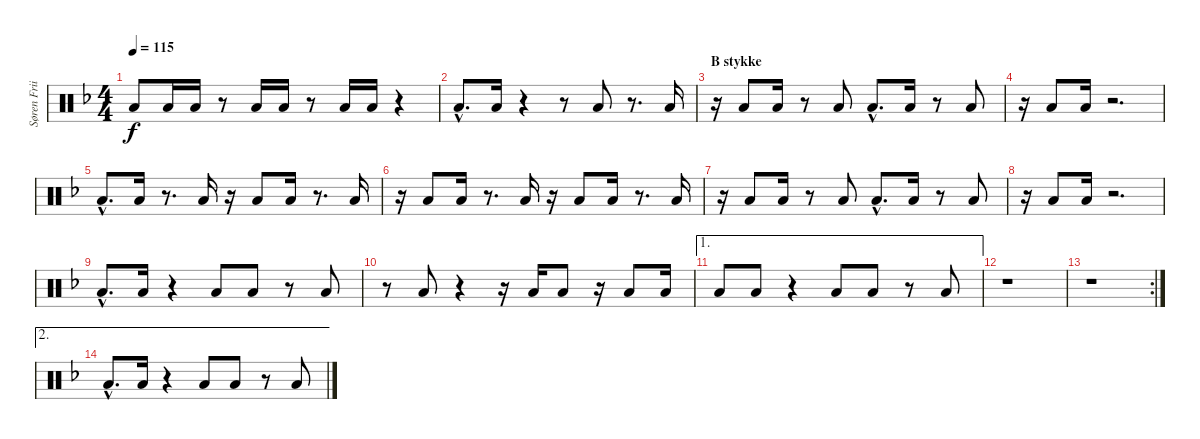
\track ("Søren Friis (Floor Drum)" "Søren Frii") {instrument percussion}
\staff {score}
\articulation defaults
\ts (4 4)
\tempo 115
\clef neutral
\ks f "Low Floor Tom (hit)".8{dy f} "Low Floor Tom (hit)".16 "Low Floor Tom (hit)".16
r.8 "Low Floor Tom (hit)".16 "Low Floor Tom (hit)".16 r.8 "Low Floor Tom (hit)".16 "Low Floor Tom (hit)".16 r.4 |
"Low Floor Tom (hit)"{hac}.8{d} "Low Floor Tom (hit)".16 r.4 r.8 "Low Floor Tom (hit)".8 r.8{d} "Low Floor Tom (hit)".16 |
\section ("" "B stykke")
r.16 "Low Floor Tom (hit)".8 "Low Floor Tom (hit)".16 r.8 "Low Floor Tom (hit)".8 "Low Floor Tom (hit)"{hac}.8{d} "Low Floor Tom (hit)".16 r.8 "Low Floor Tom (hit)".8 |
r.16 "Low Floor Tom (hit)".8 "Low Floor Tom (hit)".16 r.2{d} |
"Low Floor Tom (hit)"{hac}.8{d} "Low Floor Tom (hit)".16 r.8{d} "Low Floor Tom (hit)".16 r.16 "Low Floor Tom (hit)".8 "Low Floor Tom (hit)".16 r.8{d} "Low Floor Tom (hit)".16 |
r.16 "Low Floor Tom (hit)".8 "Low Floor Tom (hit)".16 r.8{d} "Low Floor Tom (hit)".16 r.16 "Low Floor Tom (hit)".8 "Low Floor Tom (hit)".16 r.8{d} "Low Floor Tom (hit)".16 |
r.16 "Low Floor Tom (hit)".8 "Low Floor Tom (hit)".16 r.8 "Low Floor Tom (hit)".8 "Low Floor Tom (hit)"{hac}.8{d} "Low Floor Tom (hit)".16 r.8 "Low Floor Tom (hit)".8 |
r.16 "Low Floor Tom (hit)".8 "Low Floor Tom (hit)".16 r.2{d} |
"Low Floor Tom (hit)"{hac}.8{d} "Low Floor Tom (hit)".16 r.4 "Low Floor Tom (hit)".8 "Low Floor Tom (hit)".8 r.8 "Low Floor Tom (hit)".8 |
r.8 "Low Floor Tom (hit)".8 r.4 r.16 "Low Floor Tom (hit)".16 "Low Floor Tom (hit)".8 r.16 "Low Floor Tom (hit)".8 "Low Floor Tom (hit)".16 |
\ae 1 "Low Floor Tom (hit)".8 "Low Floor Tom (hit)".8
r.4 "Low Floor Tom (hit)".8 "Low Floor Tom (hit)".8 r.8 "Low Floor Tom (hit)".8 |
r.1 |
\rc 2
r.1 |
\ae 2 "Low Floor Tom (hit)"{hac}.8{d} "Low Floor Tom (hit)".16
r.4 "Low Floor Tom (hit)".8 "Low Floor Tom (hit)".8 r.8 "Low Floor Tom (hit)".8
